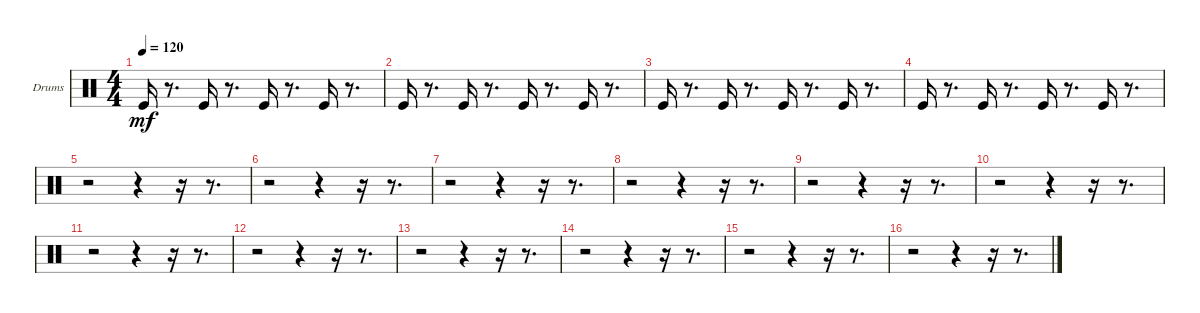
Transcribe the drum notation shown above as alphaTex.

\bracketExtendMode groupsimilarinstruments
\firstSystemTrackNameOrientation horizontal
\otherSystemsTrackNameOrientation horizontal
\track ("Drums" "Drums") {instrument percussion}
\staff {score}
\articulation defaults
\ts (4 4)
\tempo 120
\clef neutral
\ks c "Kick (hit)".16{dy mf}
r.8{d} "Kick (hit)".16 r.8{d} "Kick (hit)".16 r.8{d} "Kick (hit)".16 r.8{d} |
"Kick (hit)".16 r.8{d} "Kick (hit)".16 r.8{d} "Kick (hit)".16 r.8{d} "Kick (hit)".16 r.8{d} |
"Kick (hit)".16 r.8{d} "Kick (hit)".16 r.8{d} "Kick (hit)".16 r.8{d} "Kick (hit)".16 r.8{d} |
"Kick (hit)".16 r.8{d} "Kick (hit)".16 r.8{d} "Kick (hit)".16 r.8{d} "Kick (hit)".16 r.8{d} |
r.2 r.4 r.16 r.8{d} |
r.2 r.4 r.16 r.8{d} |
r.2 r.4 r.16 r.8{d} |
r.2 r.4 r.16 r.8{d} |
r.2 r.4 r.16 r.8{d} |
r.2 r.4 r.16 r.8{d} |
r.2 r.4 r.16 r.8{d} |
r.2 r.4 r.16 r.8{d} |
r.2 r.4 r.16 r.8{d} |
r.2 r.4 r.16 r.8{d} |
r.2 r.4 r.16 r.8{d} |
r.2 r.4 r.16 r.8{d}
